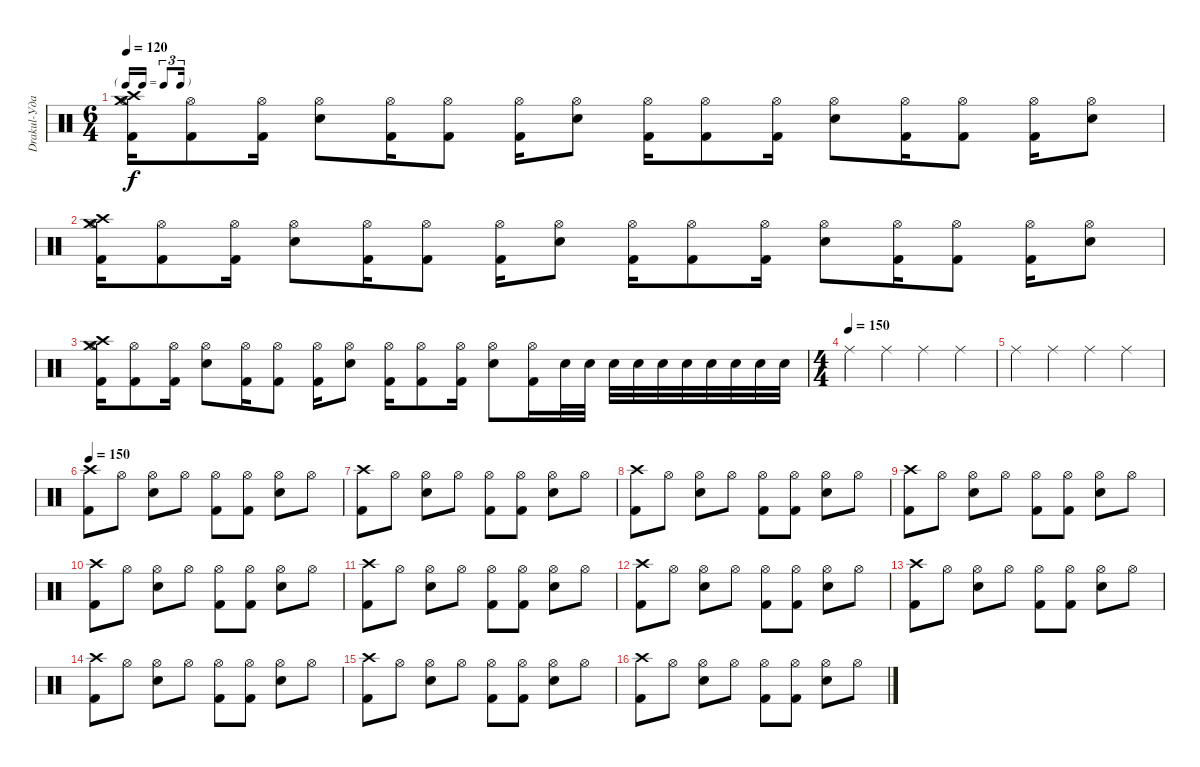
\track ("Drakul-Ударные " "Drakul-Уда") {instrument percussion}
\staff {score}
\articulation defaults
\ts (6 4)
\tf triplet16th
\tempo 120
\clef neutral
\ks c
("Kick (hit) 2" "Hi-Hat (open)" "Crash high (hit)" "Crash medium (hit)").16{dy f} ("Kick (hit) 2" "Hi-Hat (open)").8 ("Kick (hit) 2" "Hi-Hat (open)").16 ("Electric Snare (hit)" "Hi-Hat (open)").8 ("Kick (hit) 2" "Hi-Hat (open)").16 ("Kick (hit) 2" "Hi-Hat (open)").8 ("Kick (hit) 2" "Hi-Hat (open)").16 ("Electric Snare (hit)" "Hi-Hat (open)").8 ("Kick (hit) 2" "Hi-Hat (open)").16 ("Kick (hit) 2" "Hi-Hat (open)").8 ("Kick (hit) 2" "Hi-Hat (open)").16 ("Electric Snare (hit)" "Hi-Hat (open)").8 ("Kick (hit) 2" "Hi-Hat (open)").16 ("Kick (hit) 2" "Hi-Hat (open)").8 ("Kick (hit) 2" "Hi-Hat (open)").16 ("Electric Snare (hit)" "Hi-Hat (open)").8 |
("Kick (hit) 2" "Hi-Hat (open)" "Crash high (hit)" "Crash medium (hit)").16 ("Kick (hit) 2" "Hi-Hat (open)").8 ("Kick (hit) 2" "Hi-Hat (open)").16 ("Electric Snare (hit)" "Hi-Hat (open)").8 ("Kick (hit) 2" "Hi-Hat (open)").16 ("Kick (hit) 2" "Hi-Hat (open)").8 ("Kick (hit) 2" "Hi-Hat (open)").16 ("Electric Snare (hit)" "Hi-Hat (open)").8 ("Kick (hit) 2" "Hi-Hat (open)").16 ("Kick (hit) 2" "Hi-Hat (open)").8 ("Kick (hit) 2" "Hi-Hat (open)").16 ("Electric Snare (hit)" "Hi-Hat (open)").8 ("Kick (hit) 2" "Hi-Hat (open)").16 ("Kick (hit) 2" "Hi-Hat (open)").8 ("Kick (hit) 2" "Hi-Hat (open)").16 ("Electric Snare (hit)" "Hi-Hat (open)").8 |
("Kick (hit) 2" "Hi-Hat (open)" "Crash high (hit)" "Crash medium (hit)").16 ("Kick (hit) 2" "Hi-Hat (open)").8 ("Kick (hit) 2" "Hi-Hat (open)").16 ("Electric Snare (hit)" "Hi-Hat (open)").8 ("Kick (hit) 2" "Hi-Hat (open)").16 ("Kick (hit) 2" "Hi-Hat (open)").8 ("Kick (hit) 2" "Hi-Hat (open)").16 ("Electric Snare (hit)" "Hi-Hat (open)").8 ("Kick (hit) 2" "Hi-Hat (open)").16 ("Kick (hit) 2" "Hi-Hat (open)").8 ("Kick (hit) 2" "Hi-Hat (open)").16 ("Electric Snare (hit)" "Hi-Hat (open)").8 ("Kick (hit) 2" "Hi-Hat (open)").16 "Electric Snare (hit)".32 "Electric Snare (hit)".32 "Electric Snare (hit)".32 "Electric Snare (hit)".32 "Electric Snare (hit)".32 "Electric Snare (hit)".32 "Electric Snare (hit)".32 "Electric Snare (hit)".32 "Electric Snare (hit)".32 "Electric Snare (hit)".32 |
\ts (4 4)
\tempo (150)
"Ride (middle)".4 "Ride (middle)".4 "Ride (middle)".4 "Ride (middle)".4 |
"Ride (middle)".4 "Ride (middle)".4 "Ride (middle)".4 "Ride (middle)".4 |
\tempo 150
("Kick (hit) 2" "Crash high (hit)").8 "Hi-Hat (open)".8 ("Electric Snare (hit)" "Hi-Hat (open)").8 "Hi-Hat (open)".8 ("Kick (hit) 2" "Hi-Hat (open)").8 ("Kick (hit) 2" "Hi-Hat (open)").8 ("Electric Snare (hit)" "Hi-Hat (open)").8 "Hi-Hat (open)".8 |
("Kick (hit) 2" "Crash high (hit)").8 "Hi-Hat (open)".8 ("Electric Snare (hit)" "Hi-Hat (open)").8 "Hi-Hat (open)".8 ("Kick (hit) 2" "Hi-Hat (open)").8 ("Kick (hit) 2" "Hi-Hat (open)").8 ("Electric Snare (hit)" "Hi-Hat (open)").8 "Hi-Hat (open)".8 |
("Kick (hit) 2" "Crash high (hit)").8 "Hi-Hat (open)".8 ("Electric Snare (hit)" "Hi-Hat (open)").8 "Hi-Hat (open)".8 ("Kick (hit) 2" "Hi-Hat (open)").8 ("Kick (hit) 2" "Hi-Hat (open)").8 ("Electric Snare (hit)" "Hi-Hat (open)").8 "Hi-Hat (open)".8 |
("Kick (hit) 2" "Crash high (hit)").8 "Hi-Hat (open)".8 ("Electric Snare (hit)" "Hi-Hat (open)").8 "Hi-Hat (open)".8 ("Kick (hit) 2" "Hi-Hat (open)").8 ("Kick (hit) 2" "Hi-Hat (open)").8 ("Electric Snare (hit)" "Hi-Hat (open)").8 "Hi-Hat (open)".8 |
("Kick (hit) 2" "Crash high (hit)").8 "Hi-Hat (open)".8 ("Electric Snare (hit)" "Hi-Hat (open)").8 "Hi-Hat (open)".8 ("Kick (hit) 2" "Hi-Hat (open)").8 ("Kick (hit) 2" "Hi-Hat (open)").8 ("Electric Snare (hit)" "Hi-Hat (open)").8 "Hi-Hat (open)".8 |
("Kick (hit) 2" "Crash high (hit)").8 "Hi-Hat (open)".8 ("Electric Snare (hit)" "Hi-Hat (open)").8 "Hi-Hat (open)".8 ("Kick (hit) 2" "Hi-Hat (open)").8 ("Kick (hit) 2" "Hi-Hat (open)").8 ("Electric Snare (hit)" "Hi-Hat (open)").8 "Hi-Hat (open)".8 |
("Kick (hit) 2" "Crash high (hit)").8 "Hi-Hat (open)".8 ("Electric Snare (hit)" "Hi-Hat (open)").8 "Hi-Hat (open)".8 ("Kick (hit) 2" "Hi-Hat (open)").8 ("Kick (hit) 2" "Hi-Hat (open)").8 ("Electric Snare (hit)" "Hi-Hat (open)").8 "Hi-Hat (open)".8 |
("Kick (hit) 2" "Crash high (hit)").8 "Hi-Hat (open)".8 ("Electric Snare (hit)" "Hi-Hat (open)").8 "Hi-Hat (open)".8 ("Kick (hit) 2" "Hi-Hat (open)").8 ("Kick (hit) 2" "Hi-Hat (open)").8 ("Electric Snare (hit)" "Hi-Hat (open)").8 "Hi-Hat (open)".8 |
("Kick (hit) 2" "Crash high (hit)").8 "Hi-Hat (open)".8 ("Electric Snare (hit)" "Hi-Hat (open)").8 "Hi-Hat (open)".8 ("Kick (hit) 2" "Hi-Hat (open)").8 ("Kick (hit) 2" "Hi-Hat (open)").8 ("Electric Snare (hit)" "Hi-Hat (open)").8 "Hi-Hat (open)".8 |
("Kick (hit) 2" "Crash high (hit)").8 "Hi-Hat (open)".8 ("Electric Snare (hit)" "Hi-Hat (open)").8 "Hi-Hat (open)".8 ("Kick (hit) 2" "Hi-Hat (open)").8 ("Kick (hit) 2" "Hi-Hat (open)").8 ("Electric Snare (hit)" "Hi-Hat (open)").8 "Hi-Hat (open)".8 |
("Kick (hit) 2" "Crash high (hit)").8 "Hi-Hat (open)".8 ("Electric Snare (hit)" "Hi-Hat (open)").8 "Hi-Hat (open)".8 ("Kick (hit) 2" "Hi-Hat (open)").8 ("Kick (hit) 2" "Hi-Hat (open)").8 ("Electric Snare (hit)" "Hi-Hat (open)").8 "Hi-Hat (open)".8
